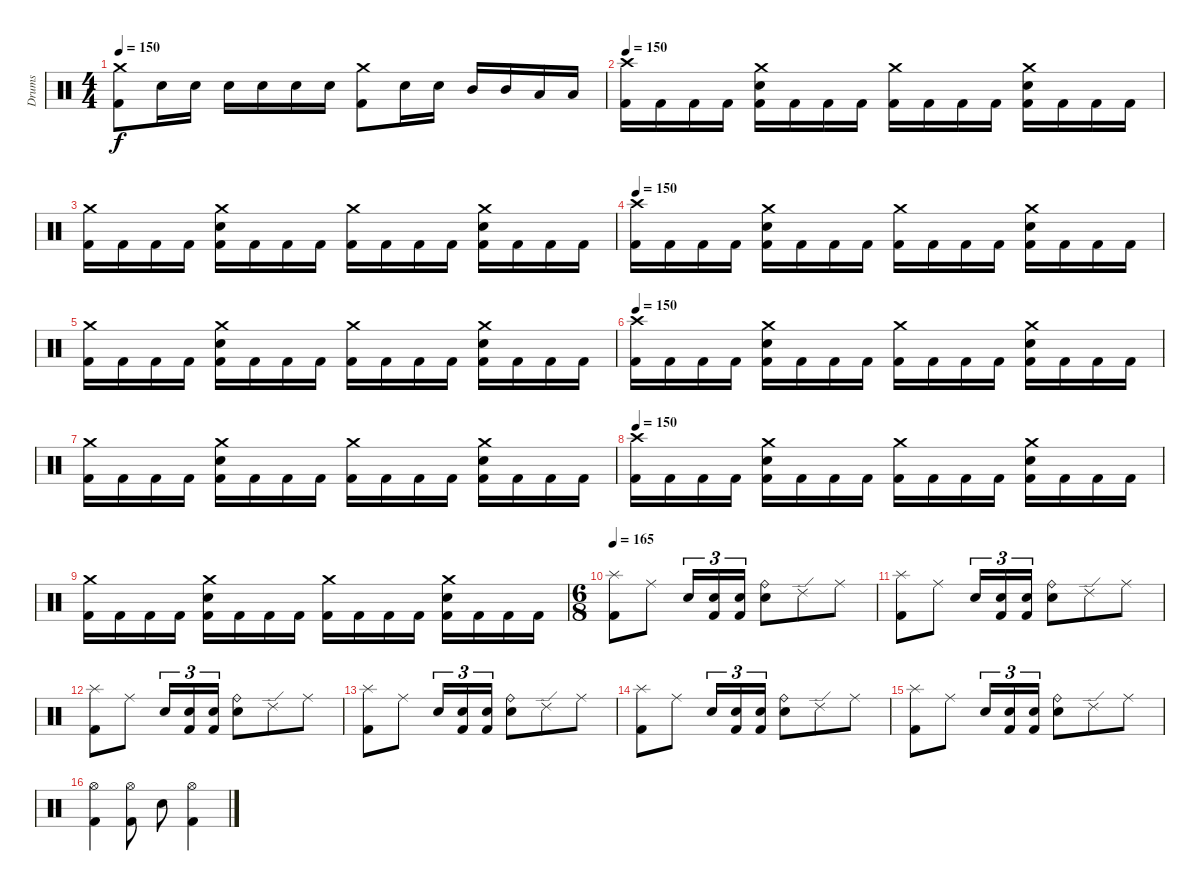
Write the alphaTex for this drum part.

\track ("Drums" "Drums") {instrument percussion}
\staff {score}
\articulation defaults
\ts (4 4)
\tempo 150
\clef neutral
\ks c
("Crash medium (hit)" "Kick (hit) 2").8{dy f} "Electric Snare (hit)".16 "Electric Snare (hit)".16 "Electric Snare (hit)".16 "Electric Snare (hit)".16 "Electric Snare (hit)".16 "Electric Snare (hit)".16 ("Crash medium (hit)" "Kick (hit) 2").8 "Electric Snare (hit)".16 "Electric Snare (hit)".16 "Mid Tom (hit)".16 "Mid Tom (hit)".16 "Low Tom (hit)".16 "Low Tom (hit)".16 |
\tempo 150
("Crash high (hit)" "Kick (hit) 2").16 "Kick (hit) 2".16 "Kick (hit) 2".16 "Kick (hit) 2".16 ("Crash medium (hit)" "Electric Snare (hit)" "Kick (hit) 2").16 "Kick (hit) 2".16 "Kick (hit) 2".16 "Kick (hit) 2".16 ("Crash medium (hit)" "Kick (hit) 2").16 "Kick (hit) 2".16 "Kick (hit) 2".16 "Kick (hit) 2".16 ("Crash medium (hit)" "Electric Snare (hit)" "Kick (hit) 2").16 "Kick (hit) 2".16 "Kick (hit) 2".16 "Kick (hit) 2".16 |
("Crash medium (hit)" "Kick (hit) 2").16 "Kick (hit) 2".16 "Kick (hit) 2".16 "Kick (hit) 2".16 ("Crash medium (hit)" "Electric Snare (hit)" "Kick (hit) 2").16 "Kick (hit) 2".16 "Kick (hit) 2".16 "Kick (hit) 2".16 ("Crash medium (hit)" "Kick (hit) 2").16 "Kick (hit) 2".16 "Kick (hit) 2".16 "Kick (hit) 2".16 ("Crash medium (hit)" "Electric Snare (hit)" "Kick (hit) 2").16 "Kick (hit) 2".16 "Kick (hit) 2".16 "Kick (hit) 2".16 |
\tempo 150
("Crash high (hit)" "Kick (hit) 2").16 "Kick (hit) 2".16 "Kick (hit) 2".16 "Kick (hit) 2".16 ("Crash medium (hit)" "Electric Snare (hit)" "Kick (hit) 2").16 "Kick (hit) 2".16 "Kick (hit) 2".16 "Kick (hit) 2".16 ("Crash medium (hit)" "Kick (hit) 2").16 "Kick (hit) 2".16 "Kick (hit) 2".16 "Kick (hit) 2".16 ("Crash medium (hit)" "Electric Snare (hit)" "Kick (hit) 2").16 "Kick (hit) 2".16 "Kick (hit) 2".16 "Kick (hit) 2".16 |
("Crash medium (hit)" "Kick (hit) 2").16 "Kick (hit) 2".16 "Kick (hit) 2".16 "Kick (hit) 2".16 ("Crash medium (hit)" "Electric Snare (hit)" "Kick (hit) 2").16 "Kick (hit) 2".16 "Kick (hit) 2".16 "Kick (hit) 2".16 ("Crash medium (hit)" "Kick (hit) 2").16 "Kick (hit) 2".16 "Kick (hit) 2".16 "Kick (hit) 2".16 ("Crash medium (hit)" "Electric Snare (hit)" "Kick (hit) 2").16 "Kick (hit) 2".16 "Kick (hit) 2".16 "Kick (hit) 2".16 |
\tempo 150
("Crash high (hit)" "Kick (hit) 2").16 "Kick (hit) 2".16 "Kick (hit) 2".16 "Kick (hit) 2".16 ("Crash medium (hit)" "Electric Snare (hit)" "Kick (hit) 2").16 "Kick (hit) 2".16 "Kick (hit) 2".16 "Kick (hit) 2".16 ("Crash medium (hit)" "Kick (hit) 2").16 "Kick (hit) 2".16 "Kick (hit) 2".16 "Kick (hit) 2".16 ("Crash medium (hit)" "Electric Snare (hit)" "Kick (hit) 2").16 "Kick (hit) 2".16 "Kick (hit) 2".16 "Kick (hit) 2".16 |
("Crash medium (hit)" "Kick (hit) 2").16 "Kick (hit) 2".16 "Kick (hit) 2".16 "Kick (hit) 2".16 ("Crash medium (hit)" "Electric Snare (hit)" "Kick (hit) 2").16 "Kick (hit) 2".16 "Kick (hit) 2".16 "Kick (hit) 2".16 ("Crash medium (hit)" "Kick (hit) 2").16 "Kick (hit) 2".16 "Kick (hit) 2".16 "Kick (hit) 2".16 ("Crash medium (hit)" "Electric Snare (hit)" "Kick (hit) 2").16 "Kick (hit) 2".16 "Kick (hit) 2".16 "Kick (hit) 2".16 |
\tempo 150
("Crash high (hit)" "Kick (hit) 2").16 "Kick (hit) 2".16 "Kick (hit) 2".16 "Kick (hit) 2".16 ("Crash medium (hit)" "Electric Snare (hit)" "Kick (hit) 2").16 "Kick (hit) 2".16 "Kick (hit) 2".16 "Kick (hit) 2".16 ("Crash medium (hit)" "Kick (hit) 2").16 "Kick (hit) 2".16 "Kick (hit) 2".16 "Kick (hit) 2".16 ("Crash medium (hit)" "Electric Snare (hit)" "Kick (hit) 2").16 "Kick (hit) 2".16 "Kick (hit) 2".16 "Kick (hit) 2".16 |
("Crash medium (hit)" "Kick (hit) 2").16 "Kick (hit) 2".16 "Kick (hit) 2".16 "Kick (hit) 2".16 ("Crash medium (hit)" "Electric Snare (hit)" "Kick (hit) 2").16 "Kick (hit) 2".16 "Kick (hit) 2".16 "Kick (hit) 2".16 ("Crash medium (hit)" "Kick (hit) 2").16 "Kick (hit) 2".16 "Kick (hit) 2".16 "Kick (hit) 2".16 ("Crash medium (hit)" "Electric Snare (hit)" "Kick (hit) 2").16 "Kick (hit) 2".16 "Kick (hit) 2".16 "Kick (hit) 2".16 |
\ts (6 8)
\tempo 165
("Splash (hit)" "Kick (hit) 2").8 "Ride (middle)".8 "Electric Snare (hit)".16{tu (3 2)} ("Electric Snare (hit)" "Kick (hit) 2").16{tu (3 2)} ("Electric Snare (hit)" "Kick (hit) 2").16{tu (3 2)} ("Ride (bell)" "Electric Snare (hit)").8 "Ride (edge) 2".8 "Ride (middle)".8 |
("Splash (hit)" "Kick (hit) 2").8 "Ride (middle)".8 "Electric Snare (hit)".16{tu (3 2)} ("Electric Snare (hit)" "Kick (hit) 2").16{tu (3 2)} ("Electric Snare (hit)" "Kick (hit) 2").16{tu (3 2)} ("Ride (bell)" "Electric Snare (hit)").8 "Ride (edge) 2".8 "Ride (middle)".8 |
("Splash (hit)" "Kick (hit) 2").8 "Ride (middle)".8 "Electric Snare (hit)".16{tu (3 2)} ("Electric Snare (hit)" "Kick (hit) 2").16{tu (3 2)} ("Electric Snare (hit)" "Kick (hit) 2").16{tu (3 2)} ("Ride (bell)" "Electric Snare (hit)").8 "Ride (edge) 2".8 "Ride (middle)".8 |
("Splash (hit)" "Kick (hit) 2").8 "Ride (middle)".8 "Electric Snare (hit)".16{tu (3 2)} ("Electric Snare (hit)" "Kick (hit) 2").16{tu (3 2)} ("Electric Snare (hit)" "Kick (hit) 2").16{tu (3 2)} ("Ride (bell)" "Electric Snare (hit)").8 "Ride (edge) 2".8 "Ride (middle)".8 |
("Splash (hit)" "Kick (hit) 2").8 "Ride (middle)".8 "Electric Snare (hit)".16{tu (3 2)} ("Electric Snare (hit)" "Kick (hit) 2").16{tu (3 2)} ("Electric Snare (hit)" "Kick (hit) 2").16{tu (3 2)} ("Ride (bell)" "Electric Snare (hit)").8 "Ride (edge) 2".8 "Ride (middle)".8 |
("Splash (hit)" "Kick (hit) 2").8 "Ride (middle)".8 "Electric Snare (hit)".16{tu (3 2)} ("Electric Snare (hit)" "Kick (hit) 2").16{tu (3 2)} ("Electric Snare (hit)" "Kick (hit) 2").16{tu (3 2)} ("Ride (bell)" "Electric Snare (hit)").8 "Ride (edge) 2".8 "Ride (middle)".8 |
("Hi-Hat (open)" "Kick (hit) 2").4 ("Hi-Hat (open)" "Kick (hit) 2").8 "Electric Snare (hit)".8 ("Hi-Hat (open)" "Kick (hit) 2").4
